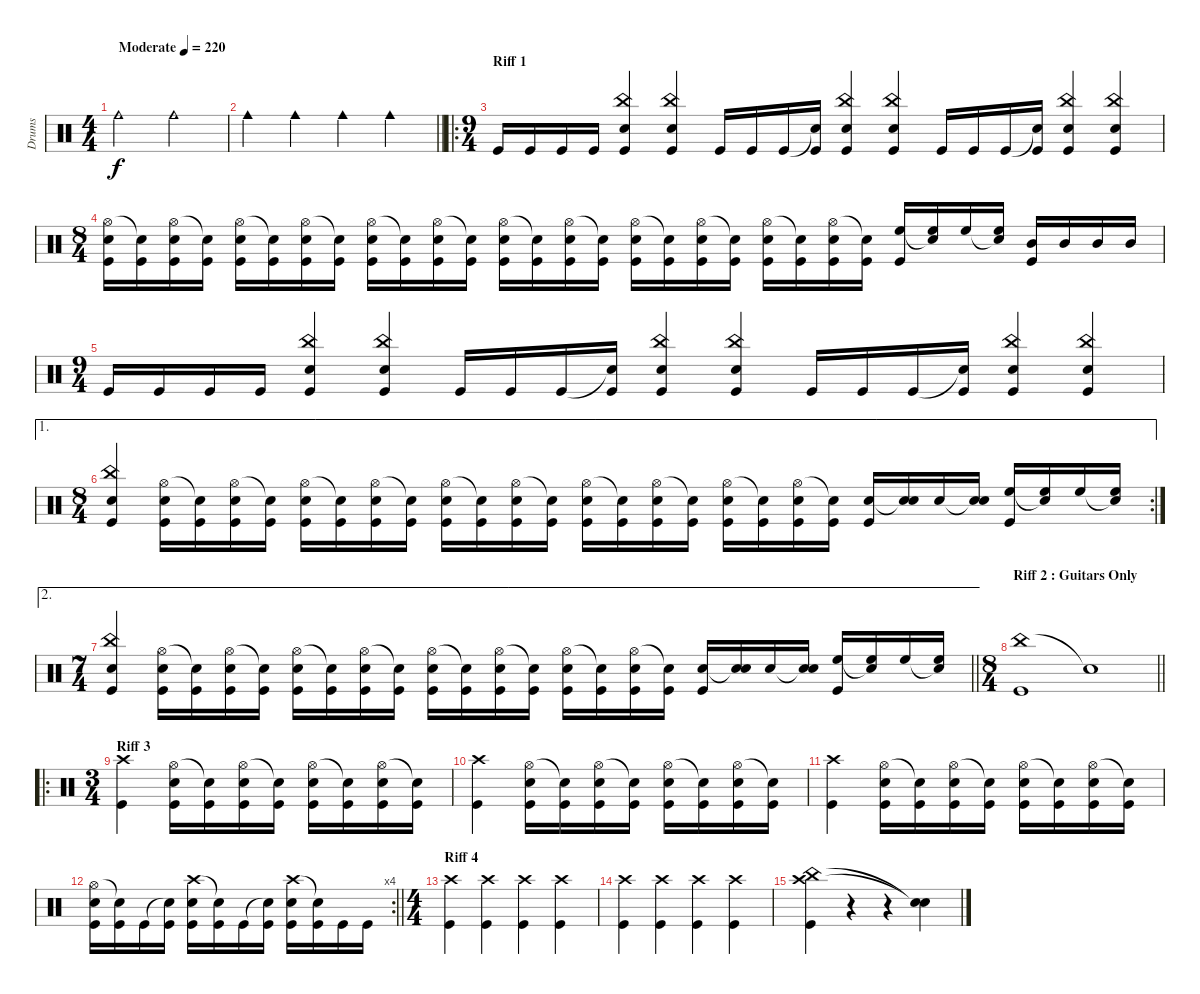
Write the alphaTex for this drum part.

\track ("Drums" "Drums") {instrument percussion}
\staff {score}
\articulation defaults
\ts (4 4)
\tempo (220 "Moderate")
\clef neutral
\ks c "Cowbell medium (hit)".2{dy f} "Cowbell medium (hit)".2
|
\barLineRight lightlight "Cowbell medium (hit)".4 "Cowbell medium (hit)".4 "Cowbell medium (hit)".4 "Cowbell medium (hit)".4
|
\ro
\ts (9 4)
\section ("" "Riff 1")
"Kick (hit)".16 "Kick (hit)".16 "Kick (hit)".16 "Kick (hit)".16 ("China (hit)" "Electric Snare (hit)" "Kick (hit)").4 ("China (hit)" "Electric Snare (hit)" "Kick (hit)").4 "Kick (hit)".16 "Kick (hit)".16 "Kick (hit)".16 ("Snare (hit)"{t} "Kick (hit)").16 ("China (hit)" "Electric Snare (hit)" "Kick (hit)").4 ("China (hit)" "Electric Snare (hit)" "Kick (hit)").4 "Kick (hit)".16 "Kick (hit)".16 "Kick (hit)".16 ("Snare (hit)"{t} "Kick (hit)").16 ("China (hit)" "Electric Snare (hit)" "Kick (hit)").4 ("China (hit)" "Electric Snare (hit)" "Kick (hit)").4 |
\ts (8 4)
("Hi-Hat (open)" "Electric Snare (hit)" "Kick (hit)").16 ("Snare (hit)"{t} "Kick (hit)").16 ("Hi-Hat (open)" "Electric Snare (hit)" "Kick (hit)").16 ("Snare (hit)"{t} "Kick (hit)").16 ("Hi-Hat (open)" "Electric Snare (hit)" "Kick (hit)").16 ("Snare (hit)"{t} "Kick (hit)").16 ("Hi-Hat (open)" "Electric Snare (hit)" "Kick (hit)").16 ("Snare (hit)"{t} "Kick (hit)").16 ("Hi-Hat (open)" "Electric Snare (hit)" "Kick (hit)").16 ("Snare (hit)"{t} "Kick (hit)").16 ("Hi-Hat (open)" "Electric Snare (hit)" "Kick (hit)").16 ("Snare (hit)"{t} "Kick (hit)").16 ("Hi-Hat (open)" "Electric Snare (hit)" "Kick (hit)").16 ("Snare (hit)"{t} "Kick (hit)").16 ("Hi-Hat (open)" "Electric Snare (hit)" "Kick (hit)").16 ("Snare (hit)"{t} "Kick (hit)").16 ("Hi-Hat (open)" "Electric Snare (hit)" "Kick (hit)").16 ("Snare (hit)"{t} "Kick (hit)").16 ("Hi-Hat (open)" "Electric Snare (hit)" "Kick (hit)").16 ("Snare (hit)"{t} "Kick (hit)").16 ("Hi-Hat (open)" "Electric Snare (hit)" "Kick (hit)").16 ("Snare (hit)"{t} "Kick (hit)").16 ("Hi-Hat (open)" "Electric Snare (hit)" "Kick (hit)").16 ("Snare (hit)"{t} "Kick (hit)").16 ("High Floor Tom (hit)" "Kick (hit)").16 ("Snare (hit)"{t} "High Floor Tom (hit)").16 "High Floor Tom (hit)".16 ("Snare (hit)"{t} "High Floor Tom (hit)").16 ("Mid Tom (hit)" "Kick (hit)").16 "Mid Tom (hit)".16 "Mid Tom (hit)".16 "Mid Tom (hit)".16 |
\ts (9 4)
"Kick (hit)".16 "Kick (hit)".16 "Kick (hit)".16 "Kick (hit)".16 ("China (hit)" "Electric Snare (hit)" "Kick (hit)").4 ("China (hit)" "Electric Snare (hit)" "Kick (hit)").4 "Kick (hit)".16 "Kick (hit)".16 "Kick (hit)".16 ("Snare (hit)"{t} "Kick (hit)").16 ("China (hit)" "Electric Snare (hit)" "Kick (hit)").4 ("China (hit)" "Electric Snare (hit)" "Kick (hit)").4 "Kick (hit)".16 "Kick (hit)".16 "Kick (hit)".16 ("Snare (hit)"{t} "Kick (hit)").16 ("China (hit)" "Electric Snare (hit)" "Kick (hit)").4 ("China (hit)" "Electric Snare (hit)" "Kick (hit)").4 |
\ae 1
\rc 2
\ts (8 4)
("China (hit)" "Electric Snare (hit)" "Kick (hit)").4 ("Hi-Hat (open)" "Electric Snare (hit)" "Kick (hit)").16 ("Snare (hit)"{t} "Kick (hit)").16 ("Hi-Hat (open)" "Electric Snare (hit)" "Kick (hit)").16 ("Snare (hit)"{t} "Kick (hit)").16 ("Hi-Hat (open)" "Electric Snare (hit)" "Kick (hit)").16 ("Snare (hit)"{t} "Kick (hit)").16 ("Hi-Hat (open)" "Electric Snare (hit)" "Kick (hit)").16 ("Snare (hit)"{t} "Kick (hit)").16 ("Hi-Hat (open)" "Electric Snare (hit)" "Kick (hit)").16 ("Snare (hit)"{t} "Kick (hit)").16 ("Hi-Hat (open)" "Electric Snare (hit)" "Kick (hit)").16 ("Snare (hit)"{t} "Kick (hit)").16 ("Hi-Hat (open)" "Electric Snare (hit)" "Kick (hit)").16 ("Snare (hit)"{t} "Kick (hit)").16 ("Hi-Hat (open)" "Electric Snare (hit)" "Kick (hit)").16 ("Snare (hit)"{t} "Kick (hit)").16 ("Hi-Hat (open)" "Electric Snare (hit)" "Kick (hit)").16 ("Snare (hit)"{t} "Kick (hit)").16 ("Hi-Hat (open)" "Electric Snare (hit)" "Kick (hit)").16 ("Snare (hit)"{t} "Kick (hit)").16 ("Electric Snare (hit)" "Kick (hit)").16 ("Snare (hit)"{t} "Electric Snare (hit)").16 "Electric Snare (hit)".16 ("Snare (hit)"{t} "Electric Snare (hit)").16 ("High Floor Tom (hit)" "Kick (hit)").16 ("Snare (hit)"{t} "High Floor Tom (hit)").16 "High Floor Tom (hit)".16 ("Snare (hit)"{t} "High Floor Tom (hit)").16 |
\ae 2
\ts (7 4)
\barLineRight lightlight
("China (hit)" "Electric Snare (hit)" "Kick (hit)").4 ("Hi-Hat (open)" "Electric Snare (hit)" "Kick (hit)").16 ("Snare (hit)"{t} "Kick (hit)").16 ("Hi-Hat (open)" "Electric Snare (hit)" "Kick (hit)").16 ("Snare (hit)"{t} "Kick (hit)").16 ("Hi-Hat (open)" "Electric Snare (hit)" "Kick (hit)").16 ("Snare (hit)"{t} "Kick (hit)").16 ("Hi-Hat (open)" "Electric Snare (hit)" "Kick (hit)").16 ("Snare (hit)"{t} "Kick (hit)").16 ("Hi-Hat (open)" "Electric Snare (hit)" "Kick (hit)").16 ("Snare (hit)"{t} "Kick (hit)").16 ("Hi-Hat (open)" "Electric Snare (hit)" "Kick (hit)").16 ("Snare (hit)"{t} "Kick (hit)").16 ("Hi-Hat (open)" "Electric Snare (hit)" "Kick (hit)").16 ("Snare (hit)"{t} "Kick (hit)").16 ("Hi-Hat (open)" "Electric Snare (hit)" "Kick (hit)").16 ("Snare (hit)"{t} "Kick (hit)").16 ("Electric Snare (hit)" "Kick (hit)").16 ("Snare (hit)"{t} "Electric Snare (hit)").16 "Electric Snare (hit)".16 ("Snare (hit)"{t} "Electric Snare (hit)").16 ("High Floor Tom (hit)" "Kick (hit)").16 ("Snare (hit)"{t} "High Floor Tom (hit)").16 "High Floor Tom (hit)".16 ("Snare (hit)"{t} "High Floor Tom (hit)").16 |
\ts (8 4)
\section ("" "Riff 2 : Guitars Only")
\barLineRight lightlight
("China (hit)" "Kick (hit)").1 "Snare (hit)"{t}.1 |
\ro
\ts (3 4)
\section ("" "Riff 3 ")
("Crash high (hit)" "Kick (hit)").4 ("Hi-Hat (open)" "Electric Snare (hit)" "Kick (hit)").16 ("Snare (hit)"{t} "Kick (hit)").16 ("Hi-Hat (open)" "Electric Snare (hit)" "Kick (hit)").16 ("Snare (hit)"{t} "Kick (hit)").16 ("Hi-Hat (open)" "Electric Snare (hit)" "Kick (hit)").16 ("Snare (hit)"{t} "Kick (hit)").16 ("Hi-Hat (open)" "Electric Snare (hit)" "Kick (hit)").16 ("Snare (hit)"{t} "Kick (hit)").16 |
("Crash high (hit)" "Kick (hit)").4 ("Hi-Hat (open)" "Electric Snare (hit)" "Kick (hit)").16 ("Snare (hit)"{t} "Kick (hit)").16 ("Hi-Hat (open)" "Electric Snare (hit)" "Kick (hit)").16 ("Snare (hit)"{t} "Kick (hit)").16 ("Hi-Hat (open)" "Electric Snare (hit)" "Kick (hit)").16 ("Snare (hit)"{t} "Kick (hit)").16 ("Hi-Hat (open)" "Electric Snare (hit)" "Kick (hit)").16 ("Snare (hit)"{t} "Kick (hit)").16 |
("Crash high (hit)" "Kick (hit)").4 ("Hi-Hat (open)" "Electric Snare (hit)" "Kick (hit)").16 ("Snare (hit)"{t} "Kick (hit)").16 ("Hi-Hat (open)" "Electric Snare (hit)" "Kick (hit)").16 ("Snare (hit)"{t} "Kick (hit)").16 ("Hi-Hat (open)" "Electric Snare (hit)" "Kick (hit)").16 ("Snare (hit)"{t} "Kick (hit)").16 ("Hi-Hat (open)" "Electric Snare (hit)" "Kick (hit)").16 ("Snare (hit)"{t} "Kick (hit)").16 |
\rc 4
\barLineRight lightlight
("Hi-Hat (open)" "Electric Snare (hit)" "Kick (hit)").16 ("Snare (hit)"{t} "Kick (hit)").16 "Kick (hit)".16 ("Snare (hit)"{t} "Kick (hit)").16 ("Crash high (hit)" "Electric Snare (hit)" "Kick (hit)").16 ("Snare (hit)"{t} "Kick (hit)").16 "Kick (hit)".16 ("Snare (hit)"{t} "Kick (hit)").16 ("Crash high (hit)" "Electric Snare (hit)" "Kick (hit)").16 ("Snare (hit)"{t} "Kick (hit)").16 "Kick (hit)".16 "Kick (hit)".16 |
\ts (4 4)
\section ("" "Riff 4")
("Crash high (hit)" "Kick (hit)").4 ("Crash high (hit)" "Kick (hit)").4 ("Crash high (hit)" "Kick (hit)").4 ("Crash high (hit)" "Kick (hit)").4 |
("Crash high (hit)" "Kick (hit)").4 ("Crash high (hit)" "Kick (hit)").4 ("Crash high (hit)" "Kick (hit)").4 ("Crash high (hit)" "Kick (hit)").4 |
("Crash high (hit)" "China (hit)" "Kick (hit)").4 r.4 r.4 ("Snare (hit)"{t} "Snare (hit)"{t}).4
